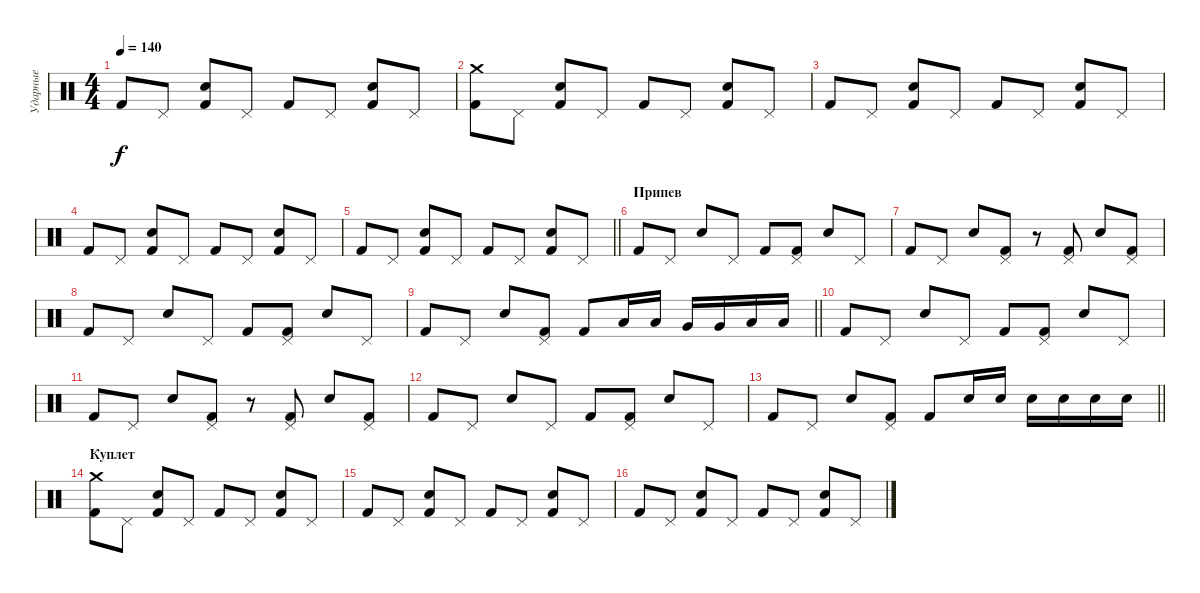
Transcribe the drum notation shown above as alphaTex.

\track ("Ударные" "Ударные") {instrument percussion}
\staff {score}
\articulation defaults
\ts (4 4)
\tempo 140
\clef neutral
\ks c "Kick (hit) 2".8{dy f} "Pedal Hi-Hat (hit)".8
("Electric Snare (hit)" "Kick (hit) 2").8 "Pedal Hi-Hat (hit)".8 "Kick (hit) 2".8 "Pedal Hi-Hat (hit)".8 ("Electric Snare (hit)" "Kick (hit) 2").8 "Pedal Hi-Hat (hit)".8 |
("Kick (hit) 2" "Crash medium (hit)").8 "Pedal Hi-Hat (hit)".8 ("Electric Snare (hit)" "Kick (hit) 2").8 "Pedal Hi-Hat (hit)".8 "Kick (hit) 2".8 "Pedal Hi-Hat (hit)".8 ("Electric Snare (hit)" "Kick (hit) 2").8 "Pedal Hi-Hat (hit)".8 |
"Kick (hit) 2".8 "Pedal Hi-Hat (hit)".8 ("Electric Snare (hit)" "Kick (hit) 2").8 "Pedal Hi-Hat (hit)".8 "Kick (hit) 2".8 "Pedal Hi-Hat (hit)".8 ("Electric Snare (hit)" "Kick (hit) 2").8 "Pedal Hi-Hat (hit)".8 |
"Kick (hit) 2".8 "Pedal Hi-Hat (hit)".8 ("Electric Snare (hit)" "Kick (hit) 2").8 "Pedal Hi-Hat (hit)".8 "Kick (hit) 2".8 "Pedal Hi-Hat (hit)".8 ("Electric Snare (hit)" "Kick (hit) 2").8 "Pedal Hi-Hat (hit)".8 |
\barLineRight lightlight "Kick (hit) 2".8 "Pedal Hi-Hat (hit)".8
("Electric Snare (hit)" "Kick (hit) 2").8 "Pedal Hi-Hat (hit)".8 "Kick (hit) 2".8 "Pedal Hi-Hat (hit)".8 ("Electric Snare (hit)" "Kick (hit) 2").8 "Pedal Hi-Hat (hit)".8 |
\section ("" "Припев")
"Kick (hit) 2".8 "Pedal Hi-Hat (hit)".8 "Electric Snare (hit)".8 "Pedal Hi-Hat (hit)".8 "Kick (hit) 2".8 ("Pedal Hi-Hat (hit)" "Kick (hit) 2").8 "Electric Snare (hit)".8 "Pedal Hi-Hat (hit)".8 |
"Kick (hit) 2".8 "Pedal Hi-Hat (hit)".8 "Electric Snare (hit)".8 ("Pedal Hi-Hat (hit)" "Kick (hit) 2").8 r.8 ("Pedal Hi-Hat (hit)" "Kick (hit) 2").8 "Electric Snare (hit)".8 ("Pedal Hi-Hat (hit)" "Kick (hit) 2").8 |
"Kick (hit) 2".8 "Pedal Hi-Hat (hit)".8 "Electric Snare (hit)".8 "Pedal Hi-Hat (hit)".8 "Kick (hit) 2".8 ("Pedal Hi-Hat (hit)" "Kick (hit) 2").8 "Electric Snare (hit)".8 "Pedal Hi-Hat (hit)".8 |
\barLineRight lightlight "Kick (hit) 2".8 "Pedal Hi-Hat (hit)".8 "Electric Snare (hit)".8
("Pedal Hi-Hat (hit)" "Kick (hit) 2").8 "Kick (hit) 2".8 "Low Tom (hit)".16 "Low Tom (hit)".16 "Very Low Tom (hit)".16 "Very Low Tom (hit)".16 "Low Floor Tom (hit)".16 "Low Floor Tom (hit)".16 |
"Kick (hit) 2".8 "Pedal Hi-Hat (hit)".8 "Electric Snare (hit)".8 "Pedal Hi-Hat (hit)".8 "Kick (hit) 2".8 ("Pedal Hi-Hat (hit)" "Kick (hit) 2").8 "Electric Snare (hit)".8 "Pedal Hi-Hat (hit)".8 |
"Kick (hit) 2".8 "Pedal Hi-Hat (hit)".8 "Electric Snare (hit)".8 ("Pedal Hi-Hat (hit)" "Kick (hit) 2").8 r.8 ("Pedal Hi-Hat (hit)" "Kick (hit) 2").8 "Electric Snare (hit)".8 ("Pedal Hi-Hat (hit)" "Kick (hit) 2").8 |
"Kick (hit) 2".8 "Pedal Hi-Hat (hit)".8 "Electric Snare (hit)".8 "Pedal Hi-Hat (hit)".8 "Kick (hit) 2".8 ("Pedal Hi-Hat (hit)" "Kick (hit) 2").8 "Electric Snare (hit)".8 "Pedal Hi-Hat (hit)".8 |
\barLineRight lightlight "Kick (hit) 2".8 "Pedal Hi-Hat (hit)".8 "Electric Snare (hit)".8
("Pedal Hi-Hat (hit)" "Kick (hit) 2").8 "Kick (hit) 2".8 "Electric Snare (hit)".16 "Electric Snare (hit)".16 "Electric Snare (hit)".16 "Electric Snare (hit)".16 "Electric Snare (hit)".16 "Electric Snare (hit)".16 |
\section ("" "Куплет")
("Kick (hit) 2" "Crash medium (hit)").8 "Pedal Hi-Hat (hit)".8 ("Electric Snare (hit)" "Kick (hit) 2").8 "Pedal Hi-Hat (hit)".8 "Kick (hit) 2".8 "Pedal Hi-Hat (hit)".8 ("Electric Snare (hit)" "Kick (hit) 2").8 "Pedal Hi-Hat (hit)".8 |
"Kick (hit) 2".8 "Pedal Hi-Hat (hit)".8 ("Electric Snare (hit)" "Kick (hit) 2").8 "Pedal Hi-Hat (hit)".8 "Kick (hit) 2".8 "Pedal Hi-Hat (hit)".8 ("Electric Snare (hit)" "Kick (hit) 2").8 "Pedal Hi-Hat (hit)".8 |
"Kick (hit) 2".8 "Pedal Hi-Hat (hit)".8 ("Electric Snare (hit)" "Kick (hit) 2").8 "Pedal Hi-Hat (hit)".8 "Kick (hit) 2".8 "Pedal Hi-Hat (hit)".8 ("Electric Snare (hit)" "Kick (hit) 2").8 "Pedal Hi-Hat (hit)".8
